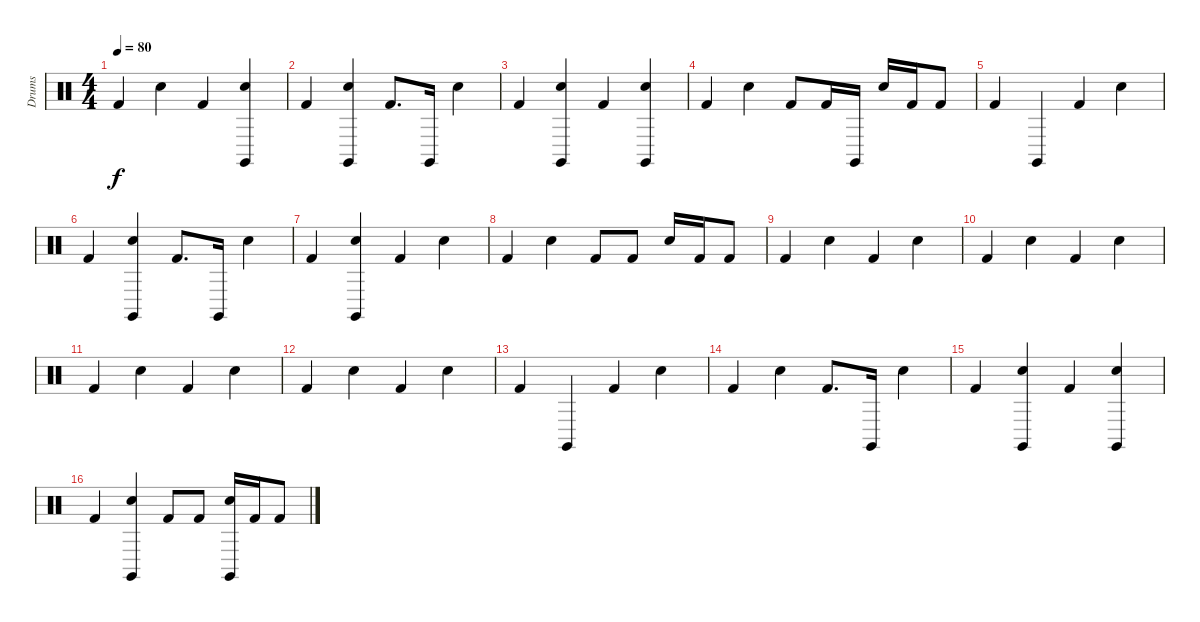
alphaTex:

\track ("Drums" "Drums") {instrument percussion}
\staff {score}
\articulation defaults
\ts (4 4)
\tempo 80
\clef neutral
\ks c "Kick (hit) 2".4{dy f} "Snare (hit) 2".4 "Kick (hit) 2".4
("Claves (hit)" "Snare (hit) 2").4 |
"Kick (hit) 2".4 ("Claves (hit)" "Snare (hit) 2").4 "Kick (hit) 2".8{d} "Claves (hit)".16 "Snare (hit) 2".4 |
"Kick (hit) 2".4 ("Claves (hit)" "Snare (hit) 2").4 "Kick (hit) 2".4 ("Claves (hit)" "Snare (hit) 2").4 |
"Kick (hit) 2".4 "Snare (hit) 2".4 "Kick (hit) 2".8 "Kick (hit) 2".16 "Claves (hit)".16 "Snare (hit) 2".16 "Kick (hit) 2".16 "Kick (hit) 2".8 |
"Kick (hit) 2".4 "Claves (hit)".4 "Kick (hit) 2".4 "Snare (hit) 2".4 |
"Kick (hit) 2".4 ("Claves (hit)" "Snare (hit) 2").4 "Kick (hit) 2".8{d} "Claves (hit)".16 "Snare (hit) 2".4 |
"Kick (hit) 2".4 ("Claves (hit)" "Snare (hit) 2").4 "Kick (hit) 2".4 "Snare (hit) 2".4 |
"Kick (hit) 2".4 "Snare (hit) 2".4 "Kick (hit) 2".8 "Kick (hit) 2".8 "Snare (hit) 2".16 "Kick (hit) 2".16 "Kick (hit) 2".8 |
"Kick (hit) 2".4 "Snare (hit) 2".4 "Kick (hit) 2".4 "Snare (hit) 2".4 |
"Kick (hit) 2".4 "Snare (hit) 2".4 "Kick (hit) 2".4 "Snare (hit) 2".4 |
"Kick (hit) 2".4 "Snare (hit) 2".4 "Kick (hit) 2".4 "Snare (hit) 2".4 |
"Kick (hit) 2".4 "Snare (hit) 2".4 "Kick (hit) 2".4 "Snare (hit) 2".4 |
"Kick (hit) 2".4 "Claves (hit)".4 "Kick (hit) 2".4 "Snare (hit) 2".4 |
"Kick (hit) 2".4 "Snare (hit) 2".4 "Kick (hit) 2".8{d} "Claves (hit)".16 "Snare (hit) 2".4 |
"Kick (hit) 2".4 ("Claves (hit)" "Snare (hit) 2").4 "Kick (hit) 2".4 ("Claves (hit)" "Snare (hit) 2").4 |
"Kick (hit) 2".4 ("Claves (hit)" "Snare (hit) 2").4 "Kick (hit) 2".8 "Kick (hit) 2".8 ("Claves (hit)" "Snare (hit) 2").16 "Kick (hit) 2".16 "Kick (hit) 2".8
